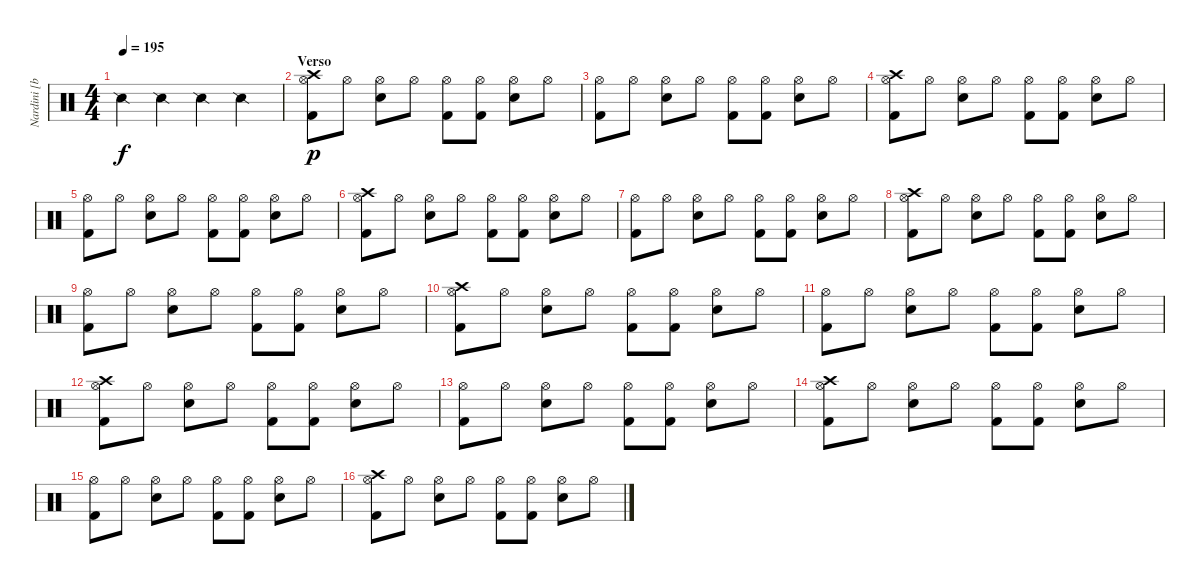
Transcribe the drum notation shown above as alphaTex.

\track ("Nardini [batteria]" "Nardini [b") {instrument percussion}
\staff {score}
\articulation defaults
\ts (4 4)
\tempo 195
\clef neutral
\ks c "Snare (side stick) 2".4{dy f} "Snare (side stick) 2".4 "Snare (side stick) 2".4 "Snare (side stick) 2".4
|
\section ("" "Verso")
("Crash high (hit)" "Hi-Hat (open)" "Kick (hit) 2").8{dy p} "Hi-Hat (open)".8 ("Hi-Hat (open)" "Electric Snare (hit)").8 "Hi-Hat (open)".8 ("Hi-Hat (open)" "Kick (hit) 2").8 ("Hi-Hat (open)" "Kick (hit) 2").8 ("Hi-Hat (open)" "Electric Snare (hit)").8 "Hi-Hat (open)".8 |
("Hi-Hat (open)" "Kick (hit) 2").8 "Hi-Hat (open)".8 ("Hi-Hat (open)" "Electric Snare (hit)").8 "Hi-Hat (open)".8 ("Hi-Hat (open)" "Kick (hit) 2").8 ("Hi-Hat (open)" "Kick (hit) 2").8 ("Hi-Hat (open)" "Electric Snare (hit)").8 "Hi-Hat (open)".8 |
("Crash high (hit)" "Hi-Hat (open)" "Kick (hit) 2").8 "Hi-Hat (open)".8 ("Hi-Hat (open)" "Electric Snare (hit)").8 "Hi-Hat (open)".8 ("Hi-Hat (open)" "Kick (hit) 2").8 ("Hi-Hat (open)" "Kick (hit) 2").8 ("Hi-Hat (open)" "Electric Snare (hit)").8 "Hi-Hat (open)".8 |
("Hi-Hat (open)" "Kick (hit) 2").8 "Hi-Hat (open)".8 ("Hi-Hat (open)" "Electric Snare (hit)").8 "Hi-Hat (open)".8 ("Hi-Hat (open)" "Kick (hit) 2").8 ("Hi-Hat (open)" "Kick (hit) 2").8 ("Hi-Hat (open)" "Electric Snare (hit)").8 "Hi-Hat (open)".8 |
("Crash high (hit)" "Hi-Hat (open)" "Kick (hit) 2").8 "Hi-Hat (open)".8 ("Hi-Hat (open)" "Electric Snare (hit)").8 "Hi-Hat (open)".8 ("Hi-Hat (open)" "Kick (hit) 2").8 ("Hi-Hat (open)" "Kick (hit) 2").8 ("Hi-Hat (open)" "Electric Snare (hit)").8 "Hi-Hat (open)".8 |
("Hi-Hat (open)" "Kick (hit) 2").8 "Hi-Hat (open)".8 ("Hi-Hat (open)" "Electric Snare (hit)").8 "Hi-Hat (open)".8 ("Hi-Hat (open)" "Kick (hit) 2").8 ("Hi-Hat (open)" "Kick (hit) 2").8 ("Hi-Hat (open)" "Electric Snare (hit)").8 "Hi-Hat (open)".8 |
("Crash high (hit)" "Hi-Hat (open)" "Kick (hit) 2").8 "Hi-Hat (open)".8 ("Hi-Hat (open)" "Electric Snare (hit)").8 "Hi-Hat (open)".8 ("Hi-Hat (open)" "Kick (hit) 2").8 ("Hi-Hat (open)" "Kick (hit) 2").8 ("Hi-Hat (open)" "Electric Snare (hit)").8 "Hi-Hat (open)".8 |
("Hi-Hat (open)" "Kick (hit) 2").8 "Hi-Hat (open)".8 ("Hi-Hat (open)" "Electric Snare (hit)").8 "Hi-Hat (open)".8 ("Hi-Hat (open)" "Kick (hit) 2").8 ("Hi-Hat (open)" "Kick (hit) 2").8 ("Hi-Hat (open)" "Electric Snare (hit)").8 "Hi-Hat (open)".8 |
("Crash high (hit)" "Hi-Hat (open)" "Kick (hit) 2").8 "Hi-Hat (open)".8 ("Hi-Hat (open)" "Electric Snare (hit)").8 "Hi-Hat (open)".8 ("Hi-Hat (open)" "Kick (hit) 2").8 ("Hi-Hat (open)" "Kick (hit) 2").8 ("Hi-Hat (open)" "Electric Snare (hit)").8 "Hi-Hat (open)".8 |
("Hi-Hat (open)" "Kick (hit) 2").8 "Hi-Hat (open)".8 ("Hi-Hat (open)" "Electric Snare (hit)").8 "Hi-Hat (open)".8 ("Hi-Hat (open)" "Kick (hit) 2").8 ("Hi-Hat (open)" "Kick (hit) 2").8 ("Hi-Hat (open)" "Electric Snare (hit)").8 "Hi-Hat (open)".8 |
("Crash high (hit)" "Hi-Hat (open)" "Kick (hit) 2").8 "Hi-Hat (open)".8 ("Hi-Hat (open)" "Electric Snare (hit)").8 "Hi-Hat (open)".8 ("Hi-Hat (open)" "Kick (hit) 2").8 ("Hi-Hat (open)" "Kick (hit) 2").8 ("Hi-Hat (open)" "Electric Snare (hit)").8 "Hi-Hat (open)".8 |
("Hi-Hat (open)" "Kick (hit) 2").8 "Hi-Hat (open)".8 ("Hi-Hat (open)" "Electric Snare (hit)").8 "Hi-Hat (open)".8 ("Hi-Hat (open)" "Kick (hit) 2").8 ("Hi-Hat (open)" "Kick (hit) 2").8 ("Hi-Hat (open)" "Electric Snare (hit)").8 "Hi-Hat (open)".8 |
("Crash high (hit)" "Hi-Hat (open)" "Kick (hit) 2").8 "Hi-Hat (open)".8 ("Hi-Hat (open)" "Electric Snare (hit)").8 "Hi-Hat (open)".8 ("Hi-Hat (open)" "Kick (hit) 2").8 ("Hi-Hat (open)" "Kick (hit) 2").8 ("Hi-Hat (open)" "Electric Snare (hit)").8 "Hi-Hat (open)".8 |
("Hi-Hat (open)" "Kick (hit) 2").8 "Hi-Hat (open)".8 ("Hi-Hat (open)" "Electric Snare (hit)").8 "Hi-Hat (open)".8 ("Hi-Hat (open)" "Kick (hit) 2").8 ("Hi-Hat (open)" "Kick (hit) 2").8 ("Hi-Hat (open)" "Electric Snare (hit)").8 "Hi-Hat (open)".8 |
("Crash high (hit)" "Hi-Hat (open)" "Kick (hit) 2").8 "Hi-Hat (open)".8 ("Hi-Hat (open)" "Electric Snare (hit)").8 "Hi-Hat (open)".8 ("Hi-Hat (open)" "Kick (hit) 2").8 ("Hi-Hat (open)" "Kick (hit) 2").8 ("Hi-Hat (open)" "Electric Snare (hit)").8 "Hi-Hat (open)".8
